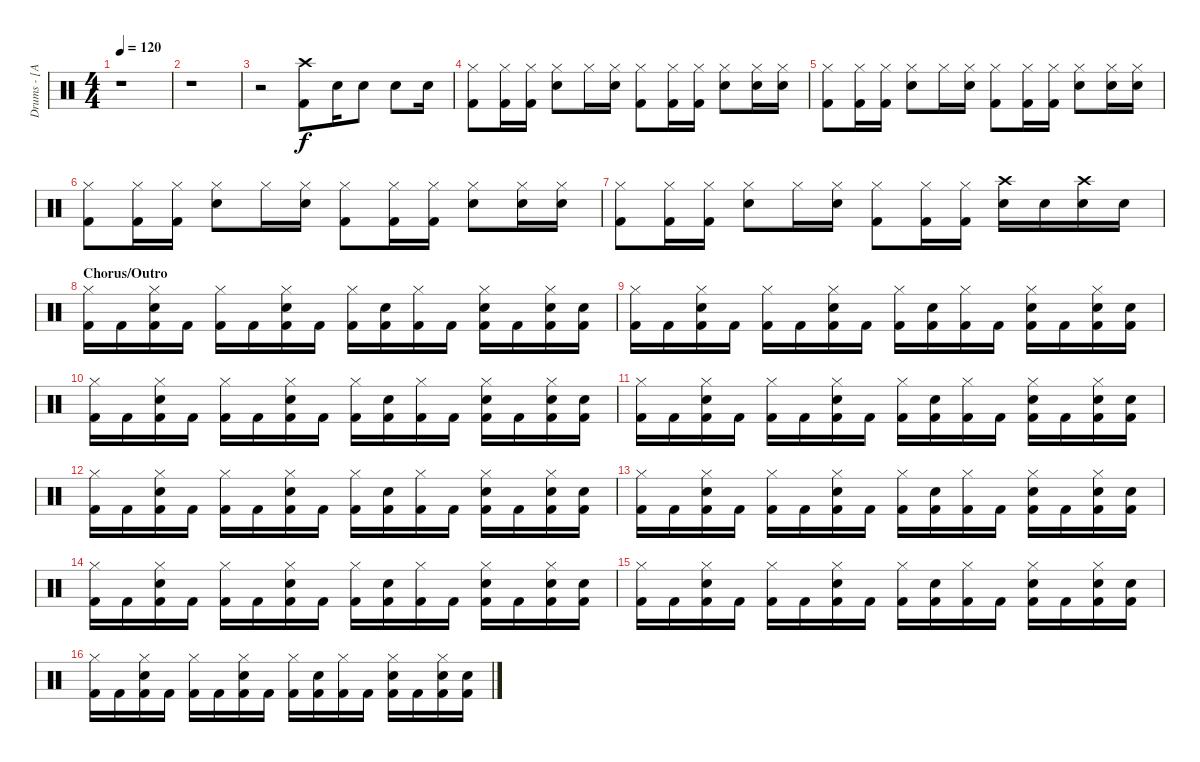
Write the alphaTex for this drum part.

\track ("Drums - [Anders]" "Drums - [A") {instrument percussion}
\staff {score}
\articulation defaults
\ts (4 4)
\tempo 120
\clef neutral
\ks c
r.1{dy f} |
r.1 |
r.2 ("Crash high (hit)" "Kick (hit) 2").8 "Snare (hit) 2".16 "Snare (hit) 2".8 "Snare (hit) 2".8 "Snare (hit) 2".16 |
("Hi-Hat (closed)" "Kick (hit) 2").8 ("Hi-Hat (closed)" "Kick (hit) 2").16 ("Hi-Hat (closed)" "Kick (hit) 2").16 ("Hi-Hat (closed)" "Snare (hit) 2").8 "Hi-Hat (closed)".16 ("Hi-Hat (closed)" "Snare (hit) 2").16 ("Hi-Hat (closed)" "Kick (hit) 2").8 ("Hi-Hat (closed)" "Kick (hit) 2").16 ("Hi-Hat (closed)" "Kick (hit) 2").16 ("Hi-Hat (closed)" "Snare (hit) 2").8 ("Hi-Hat (closed)" "Snare (hit) 2").16 ("Hi-Hat (closed)" "Snare (hit) 2").16 |
("Hi-Hat (closed)" "Kick (hit) 2").8 ("Hi-Hat (closed)" "Kick (hit) 2").16 ("Hi-Hat (closed)" "Kick (hit) 2").16 ("Hi-Hat (closed)" "Snare (hit) 2").8 "Hi-Hat (closed)".16 ("Hi-Hat (closed)" "Snare (hit) 2").16 ("Hi-Hat (closed)" "Kick (hit) 2").8 ("Hi-Hat (closed)" "Kick (hit) 2").16 ("Hi-Hat (closed)" "Kick (hit) 2").16 ("Hi-Hat (closed)" "Snare (hit) 2").8 ("Hi-Hat (closed)" "Snare (hit) 2").16 ("Hi-Hat (closed)" "Snare (hit) 2").16 |
("Hi-Hat (closed)" "Kick (hit) 2").8 ("Hi-Hat (closed)" "Kick (hit) 2").16 ("Hi-Hat (closed)" "Kick (hit) 2").16 ("Hi-Hat (closed)" "Snare (hit) 2").8 "Hi-Hat (closed)".16 ("Hi-Hat (closed)" "Snare (hit) 2").16 ("Hi-Hat (closed)" "Kick (hit) 2").8 ("Hi-Hat (closed)" "Kick (hit) 2").16 ("Hi-Hat (closed)" "Kick (hit) 2").16 ("Hi-Hat (closed)" "Snare (hit) 2").8 ("Hi-Hat (closed)" "Snare (hit) 2").16 ("Hi-Hat (closed)" "Snare (hit) 2").16 |
("Hi-Hat (closed)" "Kick (hit) 2").8 ("Hi-Hat (closed)" "Kick (hit) 2").16 ("Hi-Hat (closed)" "Kick (hit) 2").16 ("Hi-Hat (closed)" "Snare (hit) 2").8 "Hi-Hat (closed)".16 ("Hi-Hat (closed)" "Snare (hit) 2").16 ("Hi-Hat (closed)" "Kick (hit) 2").8 ("Hi-Hat (closed)" "Kick (hit) 2").16 ("Hi-Hat (closed)" "Kick (hit) 2").16 ("Crash high (hit)" "Snare (hit) 2").16 "Snare (hit) 2".16 ("Crash high (hit)" "Snare (hit) 2").16 "Snare (hit) 2".16 |
\section ("" "Chorus/Outro")
("Hi-Hat (closed)" "Kick (hit) 2").16 "Kick (hit) 2".16 ("Hi-Hat (closed)" "Snare (hit) 2" "Kick (hit) 2").16 "Kick (hit) 2".16 ("Hi-Hat (closed)" "Kick (hit) 2").16 "Kick (hit) 2".16 ("Hi-Hat (closed)" "Snare (hit) 2" "Kick (hit) 2").16 "Kick (hit) 2".16 ("Hi-Hat (closed)" "Kick (hit) 2").16 ("Snare (hit) 2" "Kick (hit) 2").16 ("Hi-Hat (closed)" "Kick (hit) 2").16 "Kick (hit) 2".16 ("Hi-Hat (closed)" "Snare (hit) 2" "Kick (hit) 2").16 "Kick (hit) 2".16 ("Hi-Hat (closed)" "Snare (hit) 2" "Kick (hit) 2").16 ("Snare (hit) 2" "Kick (hit) 2").16 |
("Hi-Hat (closed)" "Kick (hit) 2").16 "Kick (hit) 2".16 ("Hi-Hat (closed)" "Snare (hit) 2" "Kick (hit) 2").16 "Kick (hit) 2".16 ("Hi-Hat (closed)" "Kick (hit) 2").16 "Kick (hit) 2".16 ("Hi-Hat (closed)" "Snare (hit) 2" "Kick (hit) 2").16 "Kick (hit) 2".16 ("Hi-Hat (closed)" "Kick (hit) 2").16 ("Snare (hit) 2" "Kick (hit) 2").16 ("Hi-Hat (closed)" "Kick (hit) 2").16 "Kick (hit) 2".16 ("Hi-Hat (closed)" "Snare (hit) 2" "Kick (hit) 2").16 "Kick (hit) 2".16 ("Hi-Hat (closed)" "Snare (hit) 2" "Kick (hit) 2").16 ("Snare (hit) 2" "Kick (hit) 2").16 |
("Hi-Hat (closed)" "Kick (hit) 2").16 "Kick (hit) 2".16 ("Hi-Hat (closed)" "Snare (hit) 2" "Kick (hit) 2").16 "Kick (hit) 2".16 ("Hi-Hat (closed)" "Kick (hit) 2").16 "Kick (hit) 2".16 ("Hi-Hat (closed)" "Snare (hit) 2" "Kick (hit) 2").16 "Kick (hit) 2".16 ("Hi-Hat (closed)" "Kick (hit) 2").16 ("Snare (hit) 2" "Kick (hit) 2").16 ("Hi-Hat (closed)" "Kick (hit) 2").16 "Kick (hit) 2".16 ("Hi-Hat (closed)" "Snare (hit) 2" "Kick (hit) 2").16 "Kick (hit) 2".16 ("Hi-Hat (closed)" "Snare (hit) 2" "Kick (hit) 2").16 ("Snare (hit) 2" "Kick (hit) 2").16 |
("Hi-Hat (closed)" "Kick (hit) 2").16 "Kick (hit) 2".16 ("Hi-Hat (closed)" "Snare (hit) 2" "Kick (hit) 2").16 "Kick (hit) 2".16 ("Hi-Hat (closed)" "Kick (hit) 2").16 "Kick (hit) 2".16 ("Hi-Hat (closed)" "Snare (hit) 2" "Kick (hit) 2").16 "Kick (hit) 2".16 ("Hi-Hat (closed)" "Kick (hit) 2").16 ("Snare (hit) 2" "Kick (hit) 2").16 ("Hi-Hat (closed)" "Kick (hit) 2").16 "Kick (hit) 2".16 ("Hi-Hat (closed)" "Snare (hit) 2" "Kick (hit) 2").16 "Kick (hit) 2".16 ("Hi-Hat (closed)" "Snare (hit) 2" "Kick (hit) 2").16 ("Snare (hit) 2" "Kick (hit) 2").16 |
("Hi-Hat (closed)" "Kick (hit) 2").16 "Kick (hit) 2".16 ("Hi-Hat (closed)" "Snare (hit) 2" "Kick (hit) 2").16 "Kick (hit) 2".16 ("Hi-Hat (closed)" "Kick (hit) 2").16 "Kick (hit) 2".16 ("Hi-Hat (closed)" "Snare (hit) 2" "Kick (hit) 2").16 "Kick (hit) 2".16 ("Hi-Hat (closed)" "Kick (hit) 2").16 ("Snare (hit) 2" "Kick (hit) 2").16 ("Hi-Hat (closed)" "Kick (hit) 2").16 "Kick (hit) 2".16 ("Hi-Hat (closed)" "Snare (hit) 2" "Kick (hit) 2").16 "Kick (hit) 2".16 ("Hi-Hat (closed)" "Snare (hit) 2" "Kick (hit) 2").16 ("Snare (hit) 2" "Kick (hit) 2").16 |
("Hi-Hat (closed)" "Kick (hit) 2").16 "Kick (hit) 2".16 ("Hi-Hat (closed)" "Snare (hit) 2" "Kick (hit) 2").16 "Kick (hit) 2".16 ("Hi-Hat (closed)" "Kick (hit) 2").16 "Kick (hit) 2".16 ("Hi-Hat (closed)" "Snare (hit) 2" "Kick (hit) 2").16 "Kick (hit) 2".16 ("Hi-Hat (closed)" "Kick (hit) 2").16 ("Snare (hit) 2" "Kick (hit) 2").16 ("Hi-Hat (closed)" "Kick (hit) 2").16 "Kick (hit) 2".16 ("Hi-Hat (closed)" "Snare (hit) 2" "Kick (hit) 2").16 "Kick (hit) 2".16 ("Hi-Hat (closed)" "Snare (hit) 2" "Kick (hit) 2").16 ("Snare (hit) 2" "Kick (hit) 2").16 |
("Hi-Hat (closed)" "Kick (hit) 2").16 "Kick (hit) 2".16 ("Hi-Hat (closed)" "Snare (hit) 2" "Kick (hit) 2").16 "Kick (hit) 2".16 ("Hi-Hat (closed)" "Kick (hit) 2").16 "Kick (hit) 2".16 ("Hi-Hat (closed)" "Snare (hit) 2" "Kick (hit) 2").16 "Kick (hit) 2".16 ("Hi-Hat (closed)" "Kick (hit) 2").16 ("Snare (hit) 2" "Kick (hit) 2").16 ("Hi-Hat (closed)" "Kick (hit) 2").16 "Kick (hit) 2".16 ("Hi-Hat (closed)" "Snare (hit) 2" "Kick (hit) 2").16 "Kick (hit) 2".16 ("Hi-Hat (closed)" "Snare (hit) 2" "Kick (hit) 2").16 ("Snare (hit) 2" "Kick (hit) 2").16 |
("Hi-Hat (closed)" "Kick (hit) 2").16 "Kick (hit) 2".16 ("Hi-Hat (closed)" "Snare (hit) 2" "Kick (hit) 2").16 "Kick (hit) 2".16 ("Hi-Hat (closed)" "Kick (hit) 2").16 "Kick (hit) 2".16 ("Hi-Hat (closed)" "Snare (hit) 2" "Kick (hit) 2").16 "Kick (hit) 2".16 ("Hi-Hat (closed)" "Kick (hit) 2").16 ("Snare (hit) 2" "Kick (hit) 2").16 ("Hi-Hat (closed)" "Kick (hit) 2").16 "Kick (hit) 2".16 ("Hi-Hat (closed)" "Snare (hit) 2" "Kick (hit) 2").16 "Kick (hit) 2".16 ("Hi-Hat (closed)" "Snare (hit) 2" "Kick (hit) 2").16 ("Snare (hit) 2" "Kick (hit) 2").16 |
("Hi-Hat (closed)" "Kick (hit) 2").16 "Kick (hit) 2".16 ("Hi-Hat (closed)" "Snare (hit) 2" "Kick (hit) 2").16 "Kick (hit) 2".16 ("Hi-Hat (closed)" "Kick (hit) 2").16 "Kick (hit) 2".16 ("Hi-Hat (closed)" "Snare (hit) 2" "Kick (hit) 2").16 "Kick (hit) 2".16 ("Hi-Hat (closed)" "Kick (hit) 2").16 ("Snare (hit) 2" "Kick (hit) 2").16 ("Hi-Hat (closed)" "Kick (hit) 2").16 "Kick (hit) 2".16 ("Hi-Hat (closed)" "Snare (hit) 2" "Kick (hit) 2").16 "Kick (hit) 2".16 ("Hi-Hat (closed)" "Snare (hit) 2" "Kick (hit) 2").16 ("Snare (hit) 2" "Kick (hit) 2").16
